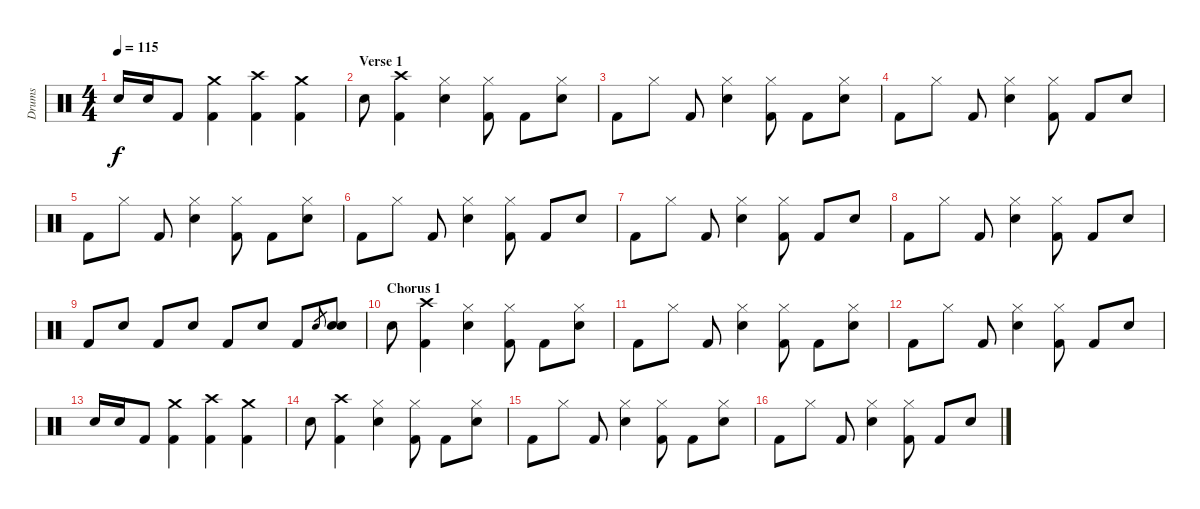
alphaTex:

\track ("Drums" "Drums") {instrument percussion}
\staff {score}
\articulation defaults
\ts (4 4)
\tempo 115
\clef neutral
\ks c "Snare (hit) 2".16{dy f} "Snare (hit) 2".16 "Kick (hit) 2".8
("Crash medium (hit)" "Kick (hit) 2").4 ("Crash high (hit)" "Kick (hit) 2").4 ("Crash medium (hit)" "Kick (hit) 2").4 |
\section ("" "Verse 1")
"Snare (hit) 2".8 ("Crash high (hit)" "Kick (hit) 2").4 ("Hi-Hat (closed)" "Snare (hit) 2").4 ("Hi-Hat (closed)" "Kick (hit) 2").8 "Kick (hit) 2".8 ("Hi-Hat (closed)" "Snare (hit) 2").8 |
"Kick (hit) 2".8 "Hi-Hat (closed)".8 "Kick (hit) 2".8 ("Hi-Hat (closed)" "Snare (hit) 2").4 ("Hi-Hat (closed)" "Kick (hit) 2").8 "Kick (hit) 2".8 ("Hi-Hat (closed)" "Snare (hit) 2").8 |
"Kick (hit) 2".8 "Hi-Hat (closed)".8 "Kick (hit) 2".8 ("Hi-Hat (closed)" "Snare (hit) 2").4 ("Hi-Hat (closed)" "Kick (hit) 2").8 "Kick (hit) 2".8 "Snare (hit) 2".8 |
"Kick (hit) 2".8 "Hi-Hat (closed)".8 "Kick (hit) 2".8 ("Hi-Hat (closed)" "Snare (hit) 2").4 ("Hi-Hat (closed)" "Kick (hit) 2").8 "Kick (hit) 2".8 ("Hi-Hat (closed)" "Snare (hit) 2").8 |
"Kick (hit) 2".8 "Hi-Hat (closed)".8 "Kick (hit) 2".8 ("Hi-Hat (closed)" "Snare (hit) 2").4 ("Hi-Hat (closed)" "Kick (hit) 2").8 "Kick (hit) 2".8 "Snare (hit) 2".8 |
"Kick (hit) 2".8 "Hi-Hat (closed)".8 "Kick (hit) 2".8 ("Hi-Hat (closed)" "Snare (hit) 2").4 ("Hi-Hat (closed)" "Kick (hit) 2").8 "Kick (hit) 2".8 "Snare (hit) 2".8 |
"Kick (hit) 2".8 "Hi-Hat (closed)".8 "Kick (hit) 2".8 ("Hi-Hat (closed)" "Snare (hit) 2").4 ("Hi-Hat (closed)" "Kick (hit) 2").8 "Kick (hit) 2".8 "Snare (hit) 2".8 |
"Kick (hit) 2".8 "Snare (hit) 2".8 "Kick (hit) 2".8 "Snare (hit) 2".8 "Kick (hit) 2".8 "Snare (hit) 2".8 "Kick (hit) 2".8 "Snare (hit) 2".8{gr} ("Snare (hit) 2" "Snare (hit) 2").8 |
\section ("" "Chorus 1")
"Snare (hit) 2".8 ("Crash high (hit)" "Kick (hit) 2").4 ("Hi-Hat (closed)" "Snare (hit) 2").4 ("Hi-Hat (closed)" "Kick (hit) 2").8 "Kick (hit) 2".8 ("Hi-Hat (closed)" "Snare (hit) 2").8 |
"Kick (hit) 2".8 "Hi-Hat (closed)".8 "Kick (hit) 2".8 ("Hi-Hat (closed)" "Snare (hit) 2").4 ("Hi-Hat (closed)" "Kick (hit) 2").8 "Kick (hit) 2".8 ("Hi-Hat (closed)" "Snare (hit) 2").8 |
"Kick (hit) 2".8 "Hi-Hat (closed)".8 "Kick (hit) 2".8 ("Hi-Hat (closed)" "Snare (hit) 2").4 ("Hi-Hat (closed)" "Kick (hit) 2").8 "Kick (hit) 2".8 "Snare (hit) 2".8 |
"Snare (hit) 2".16 "Snare (hit) 2".16 "Kick (hit) 2".8 ("Crash medium (hit)" "Kick (hit) 2").4 ("Crash high (hit)" "Kick (hit) 2").4 ("Crash medium (hit)" "Kick (hit) 2").4 |
"Snare (hit) 2".8 ("Crash high (hit)" "Kick (hit) 2").4 ("Hi-Hat (closed)" "Snare (hit) 2").4 ("Hi-Hat (closed)" "Kick (hit) 2").8 "Kick (hit) 2".8 ("Hi-Hat (closed)" "Snare (hit) 2").8 |
"Kick (hit) 2".8 "Hi-Hat (closed)".8 "Kick (hit) 2".8 ("Hi-Hat (closed)" "Snare (hit) 2").4 ("Hi-Hat (closed)" "Kick (hit) 2").8 "Kick (hit) 2".8 ("Hi-Hat (closed)" "Snare (hit) 2").8 |
"Kick (hit) 2".8 "Hi-Hat (closed)".8 "Kick (hit) 2".8 ("Hi-Hat (closed)" "Snare (hit) 2").4 ("Hi-Hat (closed)" "Kick (hit) 2").8 "Kick (hit) 2".8 "Snare (hit) 2".8
